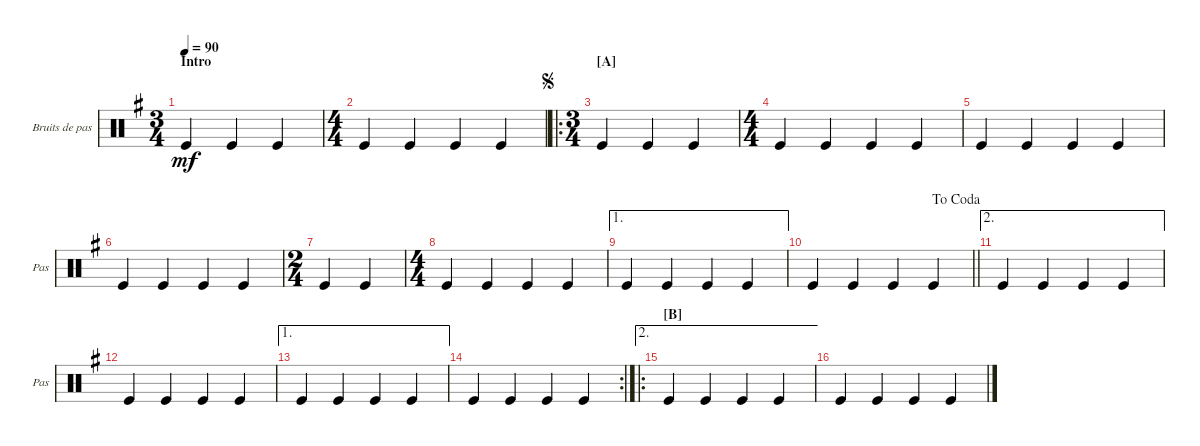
\defaultSystemsLayout 4
\singleTrackTrackNamePolicy allsystems
\multiTrackTrackNamePolicy allsystems
\firstSystemTrackNameMode fullname
\firstSystemTrackNameOrientation horizontal
\otherSystemsTrackNameOrientation horizontal
\chordDiagramsInScore
\track ("Bruits de pas" "Pas") {instrument percussion}
\staff {score}
\articulation defaults
\ts (3 4)
\section ("" "Intro")
\tempo 90
\clef neutral
\ks g "Kick (hit)".4{dy mf} "Kick (hit)".4 "Kick (hit)".4
|
\ts (4 4)
"Kick (hit)".4 "Kick (hit)".4 "Kick (hit)".4 "Kick (hit)".4 |
\ro
\ts (3 4)
\section ("A" "")
\jump segno "Kick (hit)".4 "Kick (hit)".4 "Kick (hit)".4
|
\ts (4 4)
"Kick (hit)".4 "Kick (hit)".4 "Kick (hit)".4 "Kick (hit)".4 |
"Kick (hit)".4 "Kick (hit)".4 "Kick (hit)".4 "Kick (hit)".4 |
"Kick (hit)".4 "Kick (hit)".4 "Kick (hit)".4 "Kick (hit)".4 |
\ts (2 4)
"Kick (hit)".4 "Kick (hit)".4 |
\ts (4 4)
"Kick (hit)".4 "Kick (hit)".4 "Kick (hit)".4 "Kick (hit)".4 |
\ae 1 "Kick (hit)".4 "Kick (hit)".4 "Kick (hit)".4 "Kick (hit)".4
|
\jump dacoda
\barLineRight lightlight "Kick (hit)".4 "Kick (hit)".4 "Kick (hit)".4 "Kick (hit)".4
|
\ae 2 "Kick (hit)".4 "Kick (hit)".4 "Kick (hit)".4 "Kick (hit)".4
|
"Kick (hit)".4 "Kick (hit)".4 "Kick (hit)".4 "Kick (hit)".4 |
\ae 1 "Kick (hit)".4 "Kick (hit)".4 "Kick (hit)".4 "Kick (hit)".4
|
\rc 2 "Kick (hit)".4 "Kick (hit)".4 "Kick (hit)".4 "Kick (hit)".4
|
\ae 2
\ro
\section ("B" "")
"Kick (hit)".4 "Kick (hit)".4 "Kick (hit)".4 "Kick (hit)".4 |
"Kick (hit)".4 "Kick (hit)".4 "Kick (hit)".4 "Kick (hit)".4
